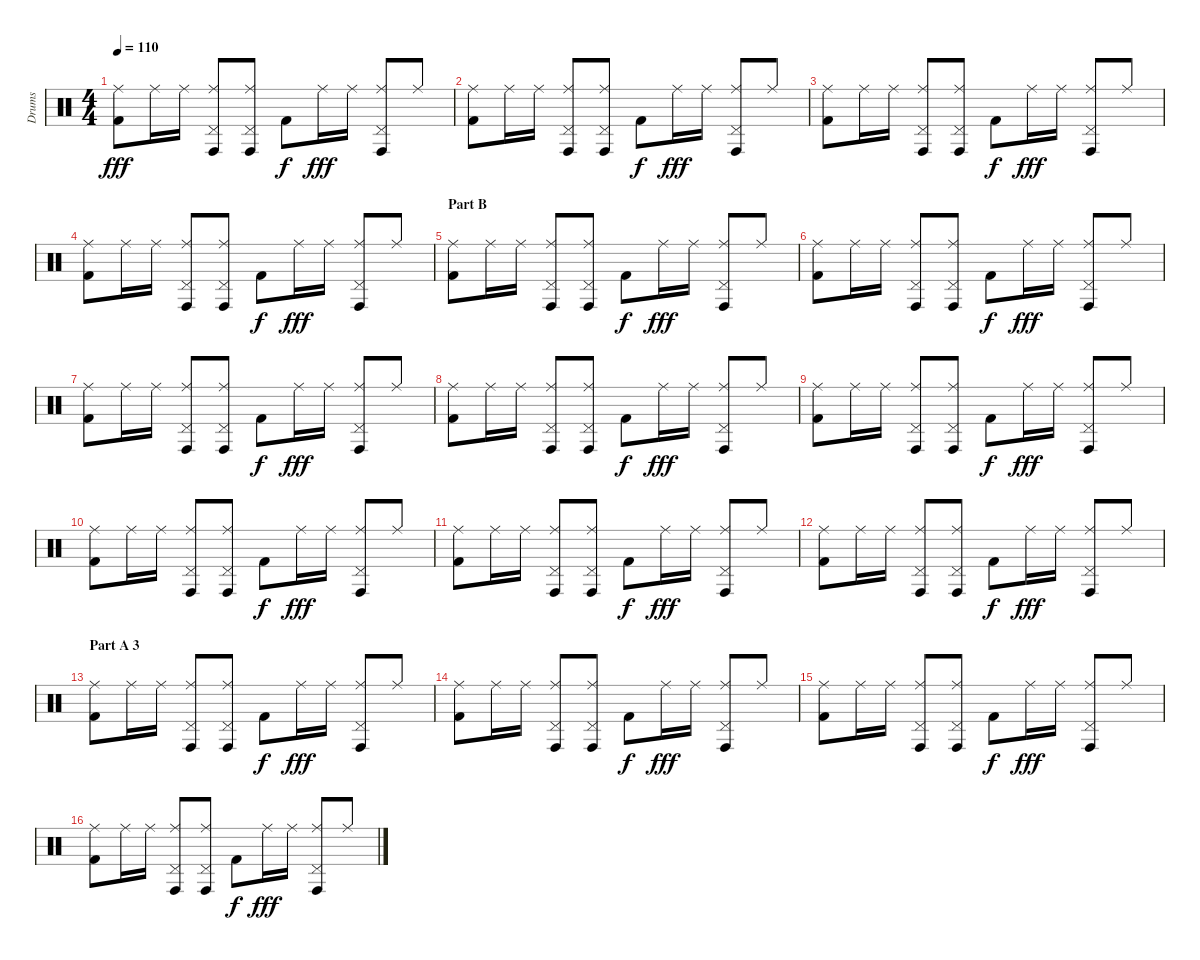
\track ("Drums" "Drums") {instrument percussion}
\staff {score}
\articulation defaults
\ts (4 4)
\tempo 110
\clef neutral
\ks c
("Ride (middle)" "Kick (hit) 2").8{dy fff} "Ride (middle)".16 "Ride (middle)".16 ("Ride (middle)" "Pedal Hi-Hat (hit)" "Conga high (hit)").8 ("Ride (middle)" "Pedal Hi-Hat (hit)" "Conga high (hit)").8 "Kick (hit) 2".8{dy f} "Ride (middle)".16{dy fff} "Ride (middle)".16 ("Ride (middle)" "Pedal Hi-Hat (hit)" "Conga high (hit)").8 "Ride (middle)".8 |
("Ride (middle)" "Kick (hit) 2").8 "Ride (middle)".16 "Ride (middle)".16 ("Ride (middle)" "Pedal Hi-Hat (hit)" "Conga high (hit)").8 ("Ride (middle)" "Pedal Hi-Hat (hit)" "Conga high (hit)").8 "Kick (hit) 2".8{dy f} "Ride (middle)".16{dy fff} "Ride (middle)".16 ("Ride (middle)" "Pedal Hi-Hat (hit)" "Conga high (hit)").8 "Ride (middle)".8 |
("Ride (middle)" "Kick (hit) 2").8 "Ride (middle)".16 "Ride (middle)".16 ("Ride (middle)" "Pedal Hi-Hat (hit)" "Conga high (hit)").8 ("Ride (middle)" "Pedal Hi-Hat (hit)" "Conga high (hit)").8 "Kick (hit) 2".8{dy f} "Ride (middle)".16{dy fff} "Ride (middle)".16 ("Ride (middle)" "Pedal Hi-Hat (hit)" "Conga high (hit)").8 "Ride (middle)".8 |
("Ride (middle)" "Kick (hit) 2").8 "Ride (middle)".16 "Ride (middle)".16 ("Ride (middle)" "Pedal Hi-Hat (hit)" "Conga high (hit)").8 ("Ride (middle)" "Pedal Hi-Hat (hit)" "Conga high (hit)").8 "Kick (hit) 2".8{dy f} "Ride (middle)".16{dy fff} "Ride (middle)".16 ("Ride (middle)" "Pedal Hi-Hat (hit)" "Conga high (hit)").8 "Ride (middle)".8 |
\section ("" "Part B")
("Ride (middle)" "Kick (hit) 2").8 "Ride (middle)".16 "Ride (middle)".16 ("Ride (middle)" "Pedal Hi-Hat (hit)" "Conga high (hit)").8 ("Ride (middle)" "Pedal Hi-Hat (hit)" "Conga high (hit)").8 "Kick (hit) 2".8{dy f} "Ride (middle)".16{dy fff} "Ride (middle)".16 ("Ride (middle)" "Pedal Hi-Hat (hit)" "Conga high (hit)").8 "Ride (middle)".8 |
("Ride (middle)" "Kick (hit) 2").8 "Ride (middle)".16 "Ride (middle)".16 ("Ride (middle)" "Pedal Hi-Hat (hit)" "Conga high (hit)").8 ("Ride (middle)" "Pedal Hi-Hat (hit)" "Conga high (hit)").8 "Kick (hit) 2".8{dy f} "Ride (middle)".16{dy fff} "Ride (middle)".16 ("Ride (middle)" "Pedal Hi-Hat (hit)" "Conga high (hit)").8 "Ride (middle)".8 |
("Ride (middle)" "Kick (hit) 2").8 "Ride (middle)".16 "Ride (middle)".16 ("Ride (middle)" "Pedal Hi-Hat (hit)" "Conga high (hit)").8 ("Ride (middle)" "Pedal Hi-Hat (hit)" "Conga high (hit)").8 "Kick (hit) 2".8{dy f} "Ride (middle)".16{dy fff} "Ride (middle)".16 ("Ride (middle)" "Pedal Hi-Hat (hit)" "Conga high (hit)").8 "Ride (middle)".8 |
("Ride (middle)" "Kick (hit) 2").8 "Ride (middle)".16 "Ride (middle)".16 ("Ride (middle)" "Pedal Hi-Hat (hit)" "Conga high (hit)").8 ("Ride (middle)" "Pedal Hi-Hat (hit)" "Conga high (hit)").8 "Kick (hit) 2".8{dy f} "Ride (middle)".16{dy fff} "Ride (middle)".16 ("Ride (middle)" "Pedal Hi-Hat (hit)" "Conga high (hit)").8 "Ride (middle)".8 |
("Ride (middle)" "Kick (hit) 2").8 "Ride (middle)".16 "Ride (middle)".16 ("Ride (middle)" "Pedal Hi-Hat (hit)" "Conga high (hit)").8 ("Ride (middle)" "Pedal Hi-Hat (hit)" "Conga high (hit)").8 "Kick (hit) 2".8{dy f} "Ride (middle)".16{dy fff} "Ride (middle)".16 ("Ride (middle)" "Pedal Hi-Hat (hit)" "Conga high (hit)").8 "Ride (middle)".8 |
("Ride (middle)" "Kick (hit) 2").8 "Ride (middle)".16 "Ride (middle)".16 ("Ride (middle)" "Pedal Hi-Hat (hit)" "Conga high (hit)").8 ("Ride (middle)" "Pedal Hi-Hat (hit)" "Conga high (hit)").8 "Kick (hit) 2".8{dy f} "Ride (middle)".16{dy fff} "Ride (middle)".16 ("Ride (middle)" "Pedal Hi-Hat (hit)" "Conga high (hit)").8 "Ride (middle)".8 |
("Ride (middle)" "Kick (hit) 2").8 "Ride (middle)".16 "Ride (middle)".16 ("Ride (middle)" "Pedal Hi-Hat (hit)" "Conga high (hit)").8 ("Ride (middle)" "Pedal Hi-Hat (hit)" "Conga high (hit)").8 "Kick (hit) 2".8{dy f} "Ride (middle)".16{dy fff} "Ride (middle)".16 ("Ride (middle)" "Pedal Hi-Hat (hit)" "Conga high (hit)").8 "Ride (middle)".8 |
("Ride (middle)" "Kick (hit) 2").8 "Ride (middle)".16 "Ride (middle)".16 ("Ride (middle)" "Pedal Hi-Hat (hit)" "Conga high (hit)").8 ("Ride (middle)" "Pedal Hi-Hat (hit)" "Conga high (hit)").8 "Kick (hit) 2".8{dy f} "Ride (middle)".16{dy fff} "Ride (middle)".16 ("Ride (middle)" "Pedal Hi-Hat (hit)" "Conga high (hit)").8 "Ride (middle)".8 |
\section ("" "Part A 3")
("Ride (middle)" "Kick (hit) 2").8 "Ride (middle)".16 "Ride (middle)".16 ("Ride (middle)" "Pedal Hi-Hat (hit)" "Conga high (hit)").8 ("Ride (middle)" "Pedal Hi-Hat (hit)" "Conga high (hit)").8 "Kick (hit) 2".8{dy f} "Ride (middle)".16{dy fff} "Ride (middle)".16 ("Ride (middle)" "Pedal Hi-Hat (hit)" "Conga high (hit)").8 "Ride (middle)".8 |
("Ride (middle)" "Kick (hit) 2").8 "Ride (middle)".16 "Ride (middle)".16 ("Ride (middle)" "Pedal Hi-Hat (hit)" "Conga high (hit)").8 ("Ride (middle)" "Pedal Hi-Hat (hit)" "Conga high (hit)").8 "Kick (hit) 2".8{dy f} "Ride (middle)".16{dy fff} "Ride (middle)".16 ("Ride (middle)" "Pedal Hi-Hat (hit)" "Conga high (hit)").8 "Ride (middle)".8 |
("Ride (middle)" "Kick (hit) 2").8 "Ride (middle)".16 "Ride (middle)".16 ("Ride (middle)" "Pedal Hi-Hat (hit)" "Conga high (hit)").8 ("Ride (middle)" "Pedal Hi-Hat (hit)" "Conga high (hit)").8 "Kick (hit) 2".8{dy f} "Ride (middle)".16{dy fff} "Ride (middle)".16 ("Ride (middle)" "Pedal Hi-Hat (hit)" "Conga high (hit)").8 "Ride (middle)".8 |
("Ride (middle)" "Kick (hit) 2").8 "Ride (middle)".16 "Ride (middle)".16 ("Ride (middle)" "Pedal Hi-Hat (hit)" "Conga high (hit)").8 ("Ride (middle)" "Pedal Hi-Hat (hit)" "Conga high (hit)").8 "Kick (hit) 2".8{dy f} "Ride (middle)".16{dy fff} "Ride (middle)".16 ("Ride (middle)" "Pedal Hi-Hat (hit)" "Conga high (hit)").8 "Ride (middle)".8
